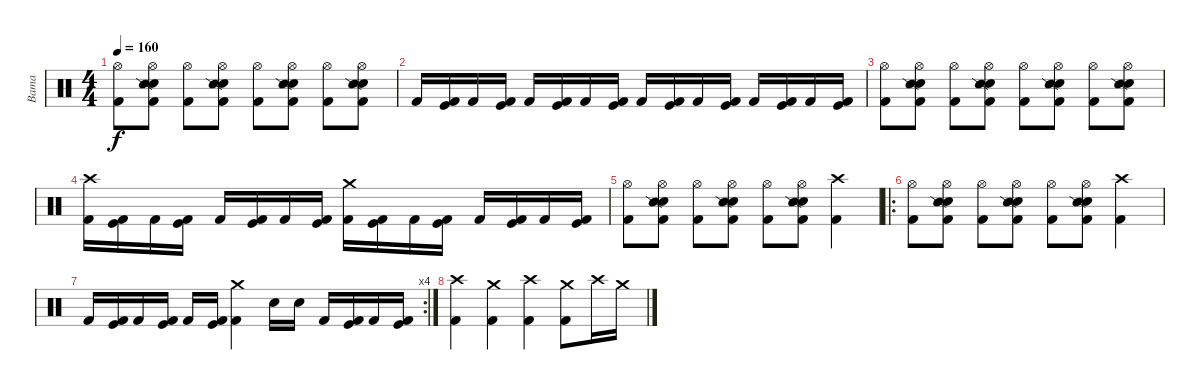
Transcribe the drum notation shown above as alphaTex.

\track ("Bama" "Bama") {instrument percussion}
\staff {score}
\articulation defaults
\ts (4 4)
\tempo 160
\clef neutral
\ks c
("Hi-Hat (open)" "Kick (hit) 2").8{dy f} ("Hi-Hat (open)" "Electric Snare (hit)" "Snare (side stick) 2" "Kick (hit) 2").8 ("Hi-Hat (open)" "Kick (hit) 2").8 ("Hi-Hat (open)" "Electric Snare (hit)" "Snare (side stick) 2" "Kick (hit) 2").8 ("Hi-Hat (open)" "Kick (hit) 2").8 ("Hi-Hat (open)" "Electric Snare (hit)" "Snare (side stick) 2" "Kick (hit) 2").8 ("Hi-Hat (open)" "Kick (hit) 2").8 ("Hi-Hat (open)" "Electric Snare (hit)" "Snare (side stick) 2" "Kick (hit) 2").8 |
"Kick (hit) 2".16 ("Kick (hit)" "Kick (hit) 2").16 "Kick (hit) 2".16 ("Kick (hit)" "Kick (hit) 2").16 "Kick (hit) 2".16 ("Kick (hit)" "Kick (hit) 2").16 "Kick (hit) 2".16 ("Kick (hit)" "Kick (hit) 2").16 "Kick (hit) 2".16 ("Kick (hit)" "Kick (hit) 2").16 "Kick (hit) 2".16 ("Kick (hit)" "Kick (hit) 2").16 "Kick (hit) 2".16 ("Kick (hit)" "Kick (hit) 2").16 "Kick (hit) 2".16 ("Kick (hit)" "Kick (hit) 2").16 |
("Hi-Hat (open)" "Kick (hit) 2").8 ("Hi-Hat (open)" "Electric Snare (hit)" "Snare (side stick) 2" "Kick (hit) 2").8 ("Hi-Hat (open)" "Kick (hit) 2").8 ("Hi-Hat (open)" "Electric Snare (hit)" "Snare (side stick) 2" "Kick (hit) 2").8 ("Hi-Hat (open)" "Kick (hit) 2").8 ("Hi-Hat (open)" "Electric Snare (hit)" "Snare (side stick) 2" "Kick (hit) 2").8 ("Hi-Hat (open)" "Kick (hit) 2").8 ("Hi-Hat (open)" "Electric Snare (hit)" "Snare (side stick) 2" "Kick (hit) 2").8 |
("Crash high (hit)" "Kick (hit) 2").16 ("Kick (hit)" "Kick (hit) 2").16 "Kick (hit) 2".16 ("Kick (hit)" "Kick (hit) 2").16 "Kick (hit) 2".16 ("Kick (hit)" "Kick (hit) 2").16 "Kick (hit) 2".16 ("Kick (hit)" "Kick (hit) 2").16 ("Crash medium (hit)" "Kick (hit) 2").16 ("Kick (hit)" "Kick (hit) 2").16 "Kick (hit) 2".16 ("Kick (hit)" "Kick (hit) 2").16 "Kick (hit) 2".16 ("Kick (hit)" "Kick (hit) 2").16 "Kick (hit) 2".16 ("Kick (hit)" "Kick (hit) 2").16 |
("Hi-Hat (open)" "Kick (hit) 2").8 ("Hi-Hat (open)" "Electric Snare (hit)" "Snare (side stick) 2" "Kick (hit) 2").8 ("Hi-Hat (open)" "Kick (hit) 2").8 ("Hi-Hat (open)" "Electric Snare (hit)" "Snare (side stick) 2" "Kick (hit) 2").8 ("Hi-Hat (open)" "Kick (hit) 2").8 ("Hi-Hat (open)" "Electric Snare (hit)" "Snare (side stick) 2" "Kick (hit) 2").8 ("Crash high (hit)" "Kick (hit) 2").4 |
\ro
("Hi-Hat (open)" "Kick (hit) 2").8 ("Hi-Hat (open)" "Electric Snare (hit)" "Snare (side stick) 2" "Kick (hit) 2").8 ("Hi-Hat (open)" "Kick (hit) 2").8 ("Hi-Hat (open)" "Electric Snare (hit)" "Snare (side stick) 2" "Kick (hit) 2").8 ("Hi-Hat (open)" "Kick (hit) 2").8 ("Hi-Hat (open)" "Electric Snare (hit)" "Snare (side stick) 2" "Kick (hit) 2").8 ("Crash high (hit)" "Kick (hit) 2").4 |
\rc 4 "Kick (hit) 2".16
("Kick (hit)" "Kick (hit) 2").16 "Kick (hit) 2".16 ("Kick (hit)" "Kick (hit) 2").16 "Kick (hit) 2".16 ("Kick (hit)" "Kick (hit) 2").16 ("Crash medium (hit)" "Kick (hit) 2").4 "Electric Snare (hit)".16 "Electric Snare (hit)".16 "Kick (hit) 2".16 ("Kick (hit)" "Kick (hit) 2").16 "Kick (hit) 2".16 ("Kick (hit)" "Kick (hit) 2").16 |
("Crash high (hit)" "Kick (hit) 2").4 ("Crash medium (hit)" "Kick (hit) 2").4 ("Crash high (hit)" "Kick (hit) 2").4 ("Crash medium (hit)" "Kick (hit) 2").8 "Crash high (hit)".16 "Crash medium (hit)".16
